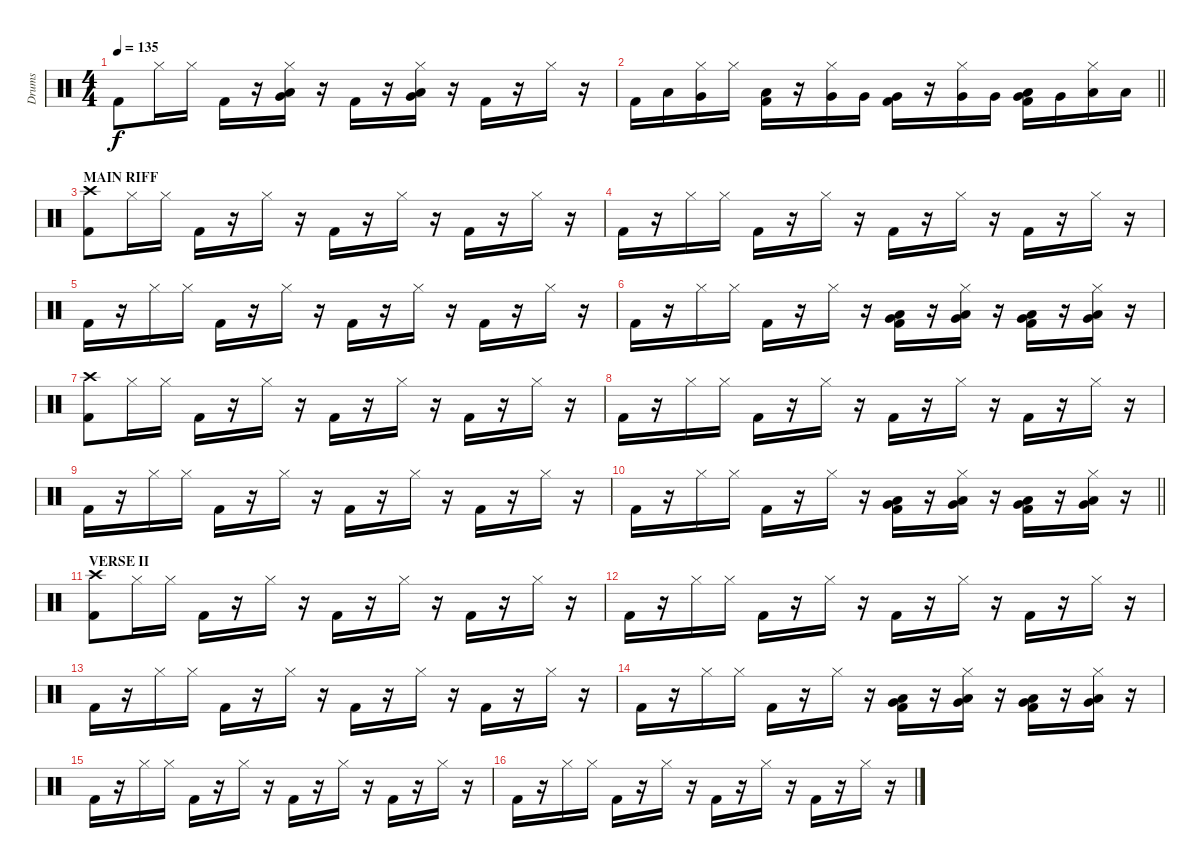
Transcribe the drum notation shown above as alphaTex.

\track ("Drums" "Drums") {instrument percussion}
\staff {score}
\articulation defaults
\ts (4 4)
\tempo 135
\clef neutral
\ks c "Kick (hit) 2".8{dy f} "Hi-Hat (closed)".16 "Hi-Hat (closed)".16 "Kick (hit) 2".16
r.16 ("Hi-Hat (closed)" "Very Low Tom (hit)" "Low Floor Tom (hit)").16 r.16 "Kick (hit) 2".16 r.16 ("Hi-Hat (closed)" "Low Floor Tom (hit)" "Very Low Tom (hit)").16 r.16 "Kick (hit) 2".16 r.16 "Hi-Hat (closed)".16 r.16 |
\barLineRight lightlight "Kick (hit) 2".16 "Low Tom (hit)".16
("Hi-Hat (closed)" "Very Low Tom (hit)").16 "Hi-Hat (closed)".16 ("Kick (hit) 2" "Low Tom (hit)").16 r.16 ("Hi-Hat (closed)" "Very Low Tom (hit)").16 "Very Low Tom (hit)".16 ("Kick (hit) 2" "Very Low Tom (hit)").16 r.16 ("Hi-Hat (closed)" "Very Low Tom (hit)").16 "Very Low Tom (hit)".16 ("Kick (hit) 2" "Very Low Tom (hit)" "Low Floor Tom (hit)").16 "Very Low Tom (hit)".16 ("Hi-Hat (closed)" "Low Floor Tom (hit)").16 "Low Floor Tom (hit)".16 |
\section ("" "MAIN RIFF")
("Kick (hit) 2" "Crash high (hit)").8 "Hi-Hat (closed)".16 "Hi-Hat (closed)".16 "Kick (hit) 2".16 r.16 "Hi-Hat (closed)".16 r.16 "Kick (hit) 2".16 r.16 "Hi-Hat (closed)".16 r.16 "Kick (hit) 2".16 r.16 "Hi-Hat (closed)".16 r.16 |
"Kick (hit) 2".16 r.16 "Hi-Hat (closed)".16 "Hi-Hat (closed)".16 "Kick (hit) 2".16 r.16 "Hi-Hat (closed)".16 r.16 "Kick (hit) 2".16 r.16 "Hi-Hat (closed)".16 r.16 "Kick (hit) 2".16 r.16 "Hi-Hat (closed)".16 r.16 |
"Kick (hit) 2".16 r.16 "Hi-Hat (closed)".16 "Hi-Hat (closed)".16 "Kick (hit) 2".16 r.16 "Hi-Hat (closed)".16 r.16 "Kick (hit) 2".16 r.16 "Hi-Hat (closed)".16 r.16 "Kick (hit) 2".16 r.16 "Hi-Hat (closed)".16 r.16 |
"Kick (hit) 2".16 r.16 "Hi-Hat (closed)".16 "Hi-Hat (closed)".16 "Kick (hit) 2".16 r.16 "Hi-Hat (closed)".16 r.16 ("Kick (hit) 2" "Very Low Tom (hit)" "Low Tom (hit)").16 r.16 ("Hi-Hat (closed)" "Low Tom (hit)" "Very Low Tom (hit)").16 r.16 ("Kick (hit) 2" "Very Low Tom (hit)" "Low Tom (hit)").16 r.16 ("Hi-Hat (closed)" "Low Tom (hit)" "Very Low Tom (hit)").16 r.16 |
("Kick (hit) 2" "Crash high (hit)").8 "Hi-Hat (closed)".16 "Hi-Hat (closed)".16 "Kick (hit) 2".16 r.16 "Hi-Hat (closed)".16 r.16 "Kick (hit) 2".16 r.16 "Hi-Hat (closed)".16 r.16 "Kick (hit) 2".16 r.16 "Hi-Hat (closed)".16 r.16 |
"Kick (hit) 2".16 r.16 "Hi-Hat (closed)".16 "Hi-Hat (closed)".16 "Kick (hit) 2".16 r.16 "Hi-Hat (closed)".16 r.16 "Kick (hit) 2".16 r.16 "Hi-Hat (closed)".16 r.16 "Kick (hit) 2".16 r.16 "Hi-Hat (closed)".16 r.16 |
"Kick (hit) 2".16 r.16 "Hi-Hat (closed)".16 "Hi-Hat (closed)".16 "Kick (hit) 2".16 r.16 "Hi-Hat (closed)".16 r.16 "Kick (hit) 2".16 r.16 "Hi-Hat (closed)".16 r.16 "Kick (hit) 2".16 r.16 "Hi-Hat (closed)".16 r.16 |
\barLineRight lightlight "Kick (hit) 2".16
r.16 "Hi-Hat (closed)".16 "Hi-Hat (closed)".16 "Kick (hit) 2".16 r.16 "Hi-Hat (closed)".16 r.16 ("Kick (hit) 2" "Very Low Tom (hit)" "Low Tom (hit)").16 r.16 ("Hi-Hat (closed)" "Low Tom (hit)" "Very Low Tom (hit)").16 r.16 ("Kick (hit) 2" "Very Low Tom (hit)" "Low Tom (hit)").16 r.16 ("Hi-Hat (closed)" "Low Tom (hit)" "Very Low Tom (hit)").16 r.16 |
\section ("" "VERSE II")
("Kick (hit) 2" "Crash high (hit)").8 "Hi-Hat (closed)".16 "Hi-Hat (closed)".16 "Kick (hit) 2".16 r.16 "Hi-Hat (closed)".16 r.16 "Kick (hit) 2".16 r.16 "Hi-Hat (closed)".16 r.16 "Kick (hit) 2".16 r.16 "Hi-Hat (closed)".16 r.16 |
"Kick (hit) 2".16 r.16 "Hi-Hat (closed)".16 "Hi-Hat (closed)".16 "Kick (hit) 2".16 r.16 "Hi-Hat (closed)".16 r.16 "Kick (hit) 2".16 r.16 "Hi-Hat (closed)".16 r.16 "Kick (hit) 2".16 r.16 "Hi-Hat (closed)".16 r.16 |
"Kick (hit) 2".16 r.16 "Hi-Hat (closed)".16 "Hi-Hat (closed)".16 "Kick (hit) 2".16 r.16 "Hi-Hat (closed)".16 r.16 "Kick (hit) 2".16 r.16 "Hi-Hat (closed)".16 r.16 "Kick (hit) 2".16 r.16 "Hi-Hat (closed)".16 r.16 |
"Kick (hit) 2".16 r.16 "Hi-Hat (closed)".16 "Hi-Hat (closed)".16 "Kick (hit) 2".16 r.16 "Hi-Hat (closed)".16 r.16 ("Kick (hit) 2" "Very Low Tom (hit)" "Low Tom (hit)").16 r.16 ("Hi-Hat (closed)" "Low Tom (hit)" "Very Low Tom (hit)").16 r.16 ("Kick (hit) 2" "Very Low Tom (hit)" "Low Tom (hit)").16 r.16 ("Hi-Hat (closed)" "Low Tom (hit)" "Very Low Tom (hit)").16 r.16 |
"Kick (hit) 2".16 r.16 "Hi-Hat (closed)".16 "Hi-Hat (closed)".16 "Kick (hit) 2".16 r.16 "Hi-Hat (closed)".16 r.16 "Kick (hit) 2".16 r.16 "Hi-Hat (closed)".16 r.16 "Kick (hit) 2".16 r.16 "Hi-Hat (closed)".16 r.16 |
"Kick (hit) 2".16 r.16 "Hi-Hat (closed)".16 "Hi-Hat (closed)".16 "Kick (hit) 2".16 r.16 "Hi-Hat (closed)".16 r.16 "Kick (hit) 2".16 r.16 "Hi-Hat (closed)".16 r.16 "Kick (hit) 2".16 r.16 "Hi-Hat (closed)".16 r.16
